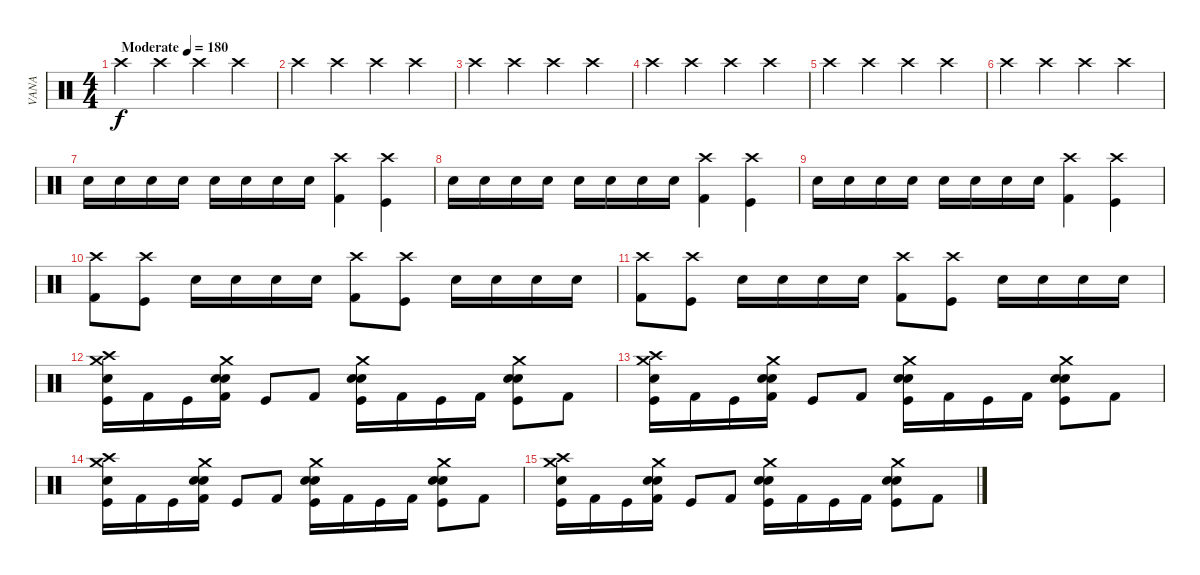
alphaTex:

\track ("VANA" "VANA") {instrument percussion}
\staff {score}
\articulation defaults
\ts (4 4)
\tempo (180 "Moderate")
\clef neutral
\ks c "Crash high (hit)".4{dy f} "Crash high (hit)".4 "Crash high (hit)".4 "Crash high (hit)".4
|
"Crash high (hit)".4 "Crash high (hit)".4 "Crash high (hit)".4 "Crash high (hit)".4 |
"Crash high (hit)".4 "Crash high (hit)".4 "Crash high (hit)".4 "Crash high (hit)".4 |
"Crash high (hit)".4 "Crash high (hit)".4 "Crash high (hit)".4 "Crash high (hit)".4 |
"Crash high (hit)".4 "Crash high (hit)".4 "Crash high (hit)".4 "Crash high (hit)".4 |
"Crash high (hit)".4 "Crash high (hit)".4 "Crash high (hit)".4 "Crash high (hit)".4 |
"Electric Snare (hit)".16 "Electric Snare (hit)".16 "Electric Snare (hit)".16 "Electric Snare (hit)".16 "Electric Snare (hit)".16 "Electric Snare (hit)".16 "Electric Snare (hit)".16 "Electric Snare (hit)".16 ("Crash high (hit)" "Kick (hit) 2").4 ("Crash high (hit)" "Kick (hit)").4 |
"Electric Snare (hit)".16 "Electric Snare (hit)".16 "Electric Snare (hit)".16 "Electric Snare (hit)".16 "Electric Snare (hit)".16 "Electric Snare (hit)".16 "Electric Snare (hit)".16 "Electric Snare (hit)".16 ("Crash high (hit)" "Kick (hit) 2").4 ("Crash high (hit)" "Kick (hit)").4 |
"Electric Snare (hit)".16 "Electric Snare (hit)".16 "Electric Snare (hit)".16 "Electric Snare (hit)".16 "Electric Snare (hit)".16 "Electric Snare (hit)".16 "Electric Snare (hit)".16 "Electric Snare (hit)".16 ("Crash high (hit)" "Kick (hit) 2").4 ("Crash high (hit)" "Kick (hit)").4 |
("Crash high (hit)" "Kick (hit) 2").8 ("Crash high (hit)" "Kick (hit)").8 "Electric Snare (hit)".16 "Electric Snare (hit)".16 "Electric Snare (hit)".16 "Electric Snare (hit)".16 ("Crash high (hit)" "Kick (hit) 2").8 ("Crash high (hit)" "Kick (hit)").8 "Electric Snare (hit)".16 "Electric Snare (hit)".16 "Electric Snare (hit)".16 "Electric Snare (hit)".16 |
("Crash high (hit)" "Kick (hit) 2").8 ("Crash high (hit)" "Kick (hit)").8 "Electric Snare (hit)".16 "Electric Snare (hit)".16 "Electric Snare (hit)".16 "Electric Snare (hit)".16 ("Crash high (hit)" "Kick (hit) 2").8 ("Crash high (hit)" "Kick (hit)").8 "Electric Snare (hit)".16 "Electric Snare (hit)".16 "Electric Snare (hit)".16 "Electric Snare (hit)".16 |
("Snare (hit) 2" "Crash medium (hit)" "Crash high (hit)" "Kick (hit)").16 "Kick (hit) 2".16 "Kick (hit)".16 ("Snare (hit) 2" "Crash medium (hit)" "Electric Snare (hit)" "Kick (hit) 2").16 "Kick (hit)".8 "Kick (hit) 2".8 ("Snare (hit) 2" "Crash medium (hit)" "Electric Snare (hit)" "Kick (hit)").16 "Kick (hit) 2".16 "Kick (hit)".16 "Kick (hit) 2".16 ("Snare (hit) 2" "Crash medium (hit)" "Electric Snare (hit)" "Kick (hit)").8 "Kick (hit) 2".8 |
("Snare (hit) 2" "Crash medium (hit)" "Crash high (hit)" "Kick (hit)").16 "Kick (hit) 2".16 "Kick (hit)".16 ("Snare (hit) 2" "Crash medium (hit)" "Electric Snare (hit)" "Kick (hit) 2").16 "Kick (hit)".8 "Kick (hit) 2".8 ("Snare (hit) 2" "Crash medium (hit)" "Electric Snare (hit)" "Kick (hit)").16 "Kick (hit) 2".16 "Kick (hit)".16 "Kick (hit) 2".16 ("Snare (hit) 2" "Crash medium (hit)" "Electric Snare (hit)" "Kick (hit)").8 "Kick (hit) 2".8 |
("Snare (hit) 2" "Crash medium (hit)" "Crash high (hit)" "Kick (hit)").16 "Kick (hit) 2".16 "Kick (hit)".16 ("Snare (hit) 2" "Crash medium (hit)" "Electric Snare (hit)" "Kick (hit) 2").16 "Kick (hit)".8 "Kick (hit) 2".8 ("Snare (hit) 2" "Crash medium (hit)" "Electric Snare (hit)" "Kick (hit)").16 "Kick (hit) 2".16 "Kick (hit)".16 "Kick (hit) 2".16 ("Snare (hit) 2" "Crash medium (hit)" "Electric Snare (hit)" "Kick (hit)").8 "Kick (hit) 2".8 |
("Snare (hit) 2" "Crash medium (hit)" "Crash high (hit)" "Kick (hit)").16 "Kick (hit) 2".16 "Kick (hit)".16 ("Snare (hit) 2" "Crash medium (hit)" "Electric Snare (hit)" "Kick (hit) 2").16 "Kick (hit)".8 "Kick (hit) 2".8 ("Snare (hit) 2" "Crash medium (hit)" "Electric Snare (hit)" "Kick (hit)").16 "Kick (hit) 2".16 "Kick (hit)".16 "Kick (hit) 2".16 ("Snare (hit) 2" "Crash medium (hit)" "Electric Snare (hit)" "Kick (hit)").8 "Kick (hit) 2".8
